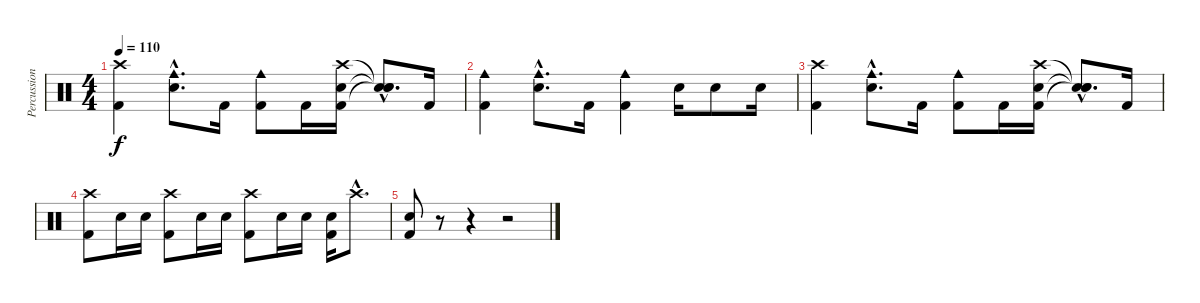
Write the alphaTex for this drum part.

\track ("Percussions" "Percussion") {instrument percussion}
\staff {score}
\articulation defaults
\ts (4 4)
\tempo 110
\clef neutral
\ks c
("Kick (hit) 2" "Crash high (hit)").4{dy f} ("Cowbell medium (hit)"{hac} "Snare (hit) 2"{hac}).8{d} "Kick (hit) 2".16 ("Cowbell medium (hit)" "Kick (hit) 2").8 "Kick (hit) 2".16 ("Kick (hit) 2" "Crash high (hit)" "Snare (hit) 2").16 ("Snare (hit)"{hac t} "Snare (hit)"{hac t} "Snare (hit)"{hac t}).8{d} "Kick (hit) 2".16 |
("Cowbell medium (hit)" "Kick (hit) 2").4 ("Snare (hit) 2"{hac} "Cowbell medium (hit)"{hac}).8{d} "Kick (hit) 2".16 ("Cowbell medium (hit)" "Kick (hit) 2").4 "Snare (hit) 2".16 "Snare (hit) 2".8 "Snare (hit) 2".16 |
("Crash high (hit)" "Kick (hit) 2").4 ("Snare (hit) 2"{hac} "Cowbell medium (hit)"{hac}).8{d} "Kick (hit) 2".16 ("Cowbell medium (hit)" "Kick (hit) 2").8 "Kick (hit) 2".16 ("Kick (hit) 2" "Crash high (hit)" "Snare (hit) 2").16 ("Snare (hit)"{hac t} "Snare (hit)"{hac t} "Snare (hit)"{hac t}).8{d} "Kick (hit) 2".16 |
("Kick (hit) 2" "Crash high (hit)").8 "Snare (hit) 2".16 "Snare (hit) 2".16 ("Kick (hit) 2" "Crash high (hit)").8 "Snare (hit) 2".16 "Snare (hit) 2".16 ("Crash high (hit)" "Kick (hit) 2").8 "Snare (hit) 2".16 "Snare (hit) 2".16 ("Snare (hit) 2" "Kick (hit) 2").16 "Crash high (hit)"{hac}.8{d} |
("Snare (hit) 2" "Kick (hit) 2").8 r.8 r.4 r.2
